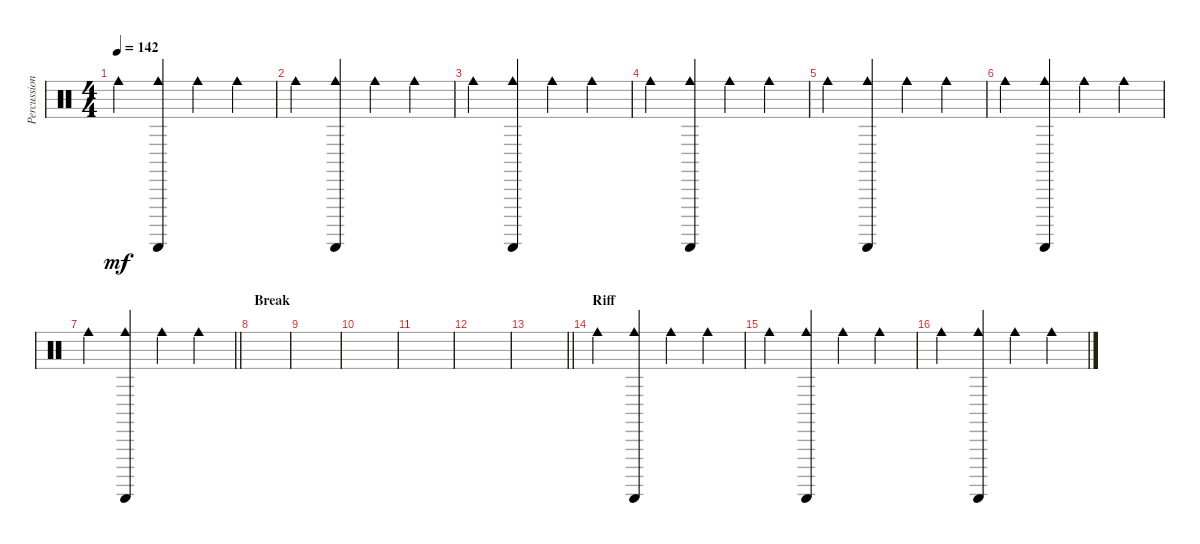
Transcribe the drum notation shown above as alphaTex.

\track ("Percussion" "Percussion") {instrument percussion}
\staff {score}
\articulation defaults
\ts (4 4)
\tempo 142
\clef neutral
\ks c "Cowbell medium (hit)".4{dy mf}
("Guiro (scrap-return)" "Cowbell medium (hit)").4 "Cowbell medium (hit)".4 "Cowbell medium (hit)".4 |
"Cowbell medium (hit)".4 ("Guiro (scrap-return)" "Cowbell medium (hit)").4 "Cowbell medium (hit)".4 "Cowbell medium (hit)".4 |
"Cowbell medium (hit)".4 ("Guiro (scrap-return)" "Cowbell medium (hit)").4 "Cowbell medium (hit)".4 "Cowbell medium (hit)".4 |
"Cowbell medium (hit)".4 ("Guiro (scrap-return)" "Cowbell medium (hit)").4 "Cowbell medium (hit)".4 "Cowbell medium (hit)".4 |
"Cowbell medium (hit)".4 ("Guiro (scrap-return)" "Cowbell medium (hit)").4 "Cowbell medium (hit)".4 "Cowbell medium (hit)".4 |
"Cowbell medium (hit)".4 ("Guiro (scrap-return)" "Cowbell medium (hit)").4 "Cowbell medium (hit)".4 "Cowbell medium (hit)".4 |
\barLineRight lightlight "Cowbell medium (hit)".4
("Guiro (scrap-return)" "Cowbell medium (hit)").4 "Cowbell medium (hit)".4 "Cowbell medium (hit)".4 |
\section ("" "Break")
|
|
|
|
|
\barLineRight lightlight
|
\section ("" "Riff")
"Cowbell medium (hit)".4 ("Guiro (scrap-return)" "Cowbell medium (hit)").4 "Cowbell medium (hit)".4 "Cowbell medium (hit)".4 |
"Cowbell medium (hit)".4 ("Guiro (scrap-return)" "Cowbell medium (hit)").4 "Cowbell medium (hit)".4 "Cowbell medium (hit)".4 |
"Cowbell medium (hit)".4 ("Guiro (scrap-return)" "Cowbell medium (hit)").4 "Cowbell medium (hit)".4 "Cowbell medium (hit)".4
